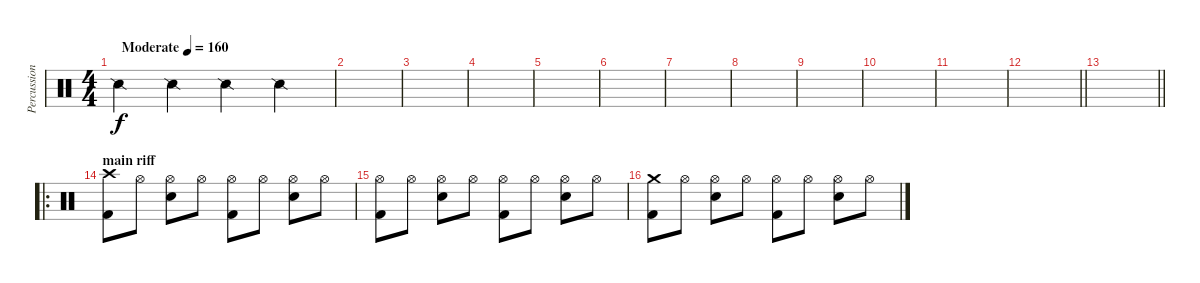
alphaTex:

\track ("Percussion 2 var" "Percussion") {mute instrument percussion}
\staff {score}
\articulation defaults
\ts (4 4)
\tempo (160 "Moderate")
\clef neutral
\ks c "Snare (side stick) 2".4{dy f} "Snare (side stick) 2".4 "Snare (side stick) 2".4 "Snare (side stick) 2".4
|
|
|
|
|
|
|
|
|
|
|
\barLineRight lightlight
|
\barLineRight lightlight
|
\ro
\section ("" "main riff")
("Crash high (hit)" "Kick (hit) 2").8 "Hi-Hat (open)".8 ("Hi-Hat (open)" "Snare (hit) 2").8 "Hi-Hat (open)".8 ("Hi-Hat (open)" "Kick (hit) 2").8 "Hi-Hat (open)".8 ("Hi-Hat (open)" "Snare (hit) 2").8 "Hi-Hat (open)".8 |
("Hi-Hat (open)" "Kick (hit) 2").8 "Hi-Hat (open)".8 ("Hi-Hat (open)" "Snare (hit) 2").8 "Hi-Hat (open)".8 ("Hi-Hat (open)" "Kick (hit) 2").8 "Hi-Hat (open)".8 ("Hi-Hat (open)" "Snare (hit) 2").8 "Hi-Hat (open)".8 |
("Crash medium (hit)" "Kick (hit) 2").8 "Hi-Hat (open)".8 ("Hi-Hat (open)" "Snare (hit) 2").8 "Hi-Hat (open)".8 ("Hi-Hat (open)" "Kick (hit) 2").8 "Hi-Hat (open)".8 ("Hi-Hat (open)" "Snare (hit) 2").8 "Hi-Hat (open)".8
